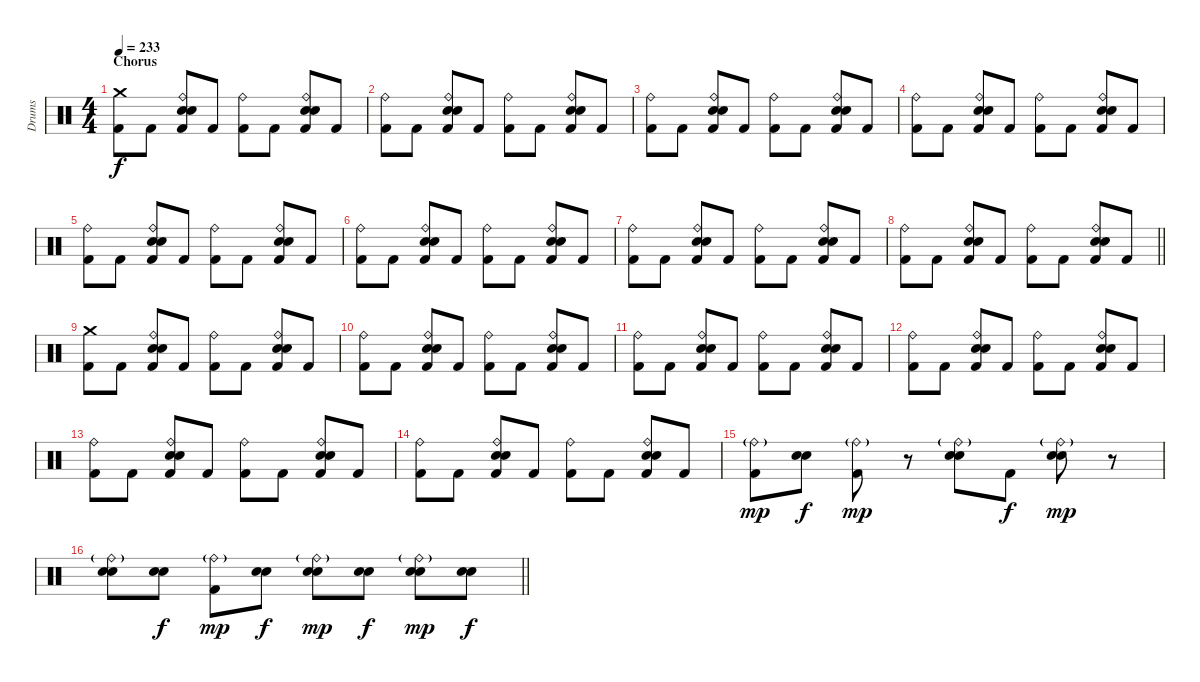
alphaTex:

\track ("Drums" "Drums") {instrument percussion}
\staff {score}
\articulation defaults
\ts (4 4)
\section ("" "Chorus")
\tempo 233
\clef neutral
\ks c
("Crash medium (hit)" "Kick (hit) 2").8{dy f} "Kick (hit) 2".8 ("Ride (bell)" "Snare (hit) 2" "Electric Snare (hit)" "Kick (hit) 2").8 "Kick (hit) 2".8 ("Ride (bell)" "Kick (hit) 2").8 "Kick (hit) 2".8 ("Ride (bell)" "Snare (hit) 2" "Electric Snare (hit)" "Kick (hit) 2").8 "Kick (hit) 2".8 |
("Ride (bell)" "Kick (hit) 2").8 "Kick (hit) 2".8 ("Ride (bell)" "Snare (hit) 2" "Electric Snare (hit)" "Kick (hit) 2").8 "Kick (hit) 2".8 ("Ride (bell)" "Kick (hit) 2").8 "Kick (hit) 2".8 ("Ride (bell)" "Snare (hit) 2" "Electric Snare (hit)" "Kick (hit) 2").8 "Kick (hit) 2".8 |
("Ride (bell)" "Kick (hit) 2").8 "Kick (hit) 2".8 ("Ride (bell)" "Snare (hit) 2" "Electric Snare (hit)" "Kick (hit) 2").8 "Kick (hit) 2".8 ("Ride (bell)" "Kick (hit) 2").8 "Kick (hit) 2".8 ("Ride (bell)" "Snare (hit) 2" "Electric Snare (hit)" "Kick (hit) 2").8 "Kick (hit) 2".8 |
("Ride (bell)" "Kick (hit) 2").8 "Kick (hit) 2".8 ("Ride (bell)" "Snare (hit) 2" "Electric Snare (hit)" "Kick (hit) 2").8 "Kick (hit) 2".8 ("Ride (bell)" "Kick (hit) 2").8 "Kick (hit) 2".8 ("Ride (bell)" "Snare (hit) 2" "Electric Snare (hit)" "Kick (hit) 2").8 "Kick (hit) 2".8 |
("Ride (bell)" "Kick (hit) 2").8 "Kick (hit) 2".8 ("Ride (bell)" "Snare (hit) 2" "Electric Snare (hit)" "Kick (hit) 2").8 "Kick (hit) 2".8 ("Ride (bell)" "Kick (hit) 2").8 "Kick (hit) 2".8 ("Ride (bell)" "Snare (hit) 2" "Electric Snare (hit)" "Kick (hit) 2").8 "Kick (hit) 2".8 |
("Ride (bell)" "Kick (hit) 2").8 "Kick (hit) 2".8 ("Ride (bell)" "Snare (hit) 2" "Electric Snare (hit)" "Kick (hit) 2").8 "Kick (hit) 2".8 ("Ride (bell)" "Kick (hit) 2").8 "Kick (hit) 2".8 ("Ride (bell)" "Snare (hit) 2" "Electric Snare (hit)" "Kick (hit) 2").8 "Kick (hit) 2".8 |
("Ride (bell)" "Kick (hit) 2").8 "Kick (hit) 2".8 ("Ride (bell)" "Snare (hit) 2" "Electric Snare (hit)" "Kick (hit) 2").8 "Kick (hit) 2".8 ("Ride (bell)" "Kick (hit) 2").8 "Kick (hit) 2".8 ("Ride (bell)" "Snare (hit) 2" "Electric Snare (hit)" "Kick (hit) 2").8 "Kick (hit) 2".8 |
\barLineRight lightlight
("Ride (bell)" "Kick (hit) 2").8 "Kick (hit) 2".8 ("Ride (bell)" "Snare (hit) 2" "Electric Snare (hit)" "Kick (hit) 2").8 "Kick (hit) 2".8 ("Ride (bell)" "Kick (hit) 2").8 "Kick (hit) 2".8 ("Ride (bell)" "Snare (hit) 2" "Electric Snare (hit)" "Kick (hit) 2").8 "Kick (hit) 2".8 |
("Crash medium (hit)" "Kick (hit) 2").8 "Kick (hit) 2".8 ("Ride (bell)" "Snare (hit) 2" "Electric Snare (hit)" "Kick (hit) 2").8 "Kick (hit) 2".8 ("Ride (bell)" "Kick (hit) 2").8 "Kick (hit) 2".8 ("Ride (bell)" "Snare (hit) 2" "Electric Snare (hit)" "Kick (hit) 2").8 "Kick (hit) 2".8 |
("Ride (bell)" "Kick (hit) 2").8 "Kick (hit) 2".8 ("Ride (bell)" "Snare (hit) 2" "Electric Snare (hit)" "Kick (hit) 2").8 "Kick (hit) 2".8 ("Ride (bell)" "Kick (hit) 2").8 "Kick (hit) 2".8 ("Ride (bell)" "Snare (hit) 2" "Electric Snare (hit)" "Kick (hit) 2").8 "Kick (hit) 2".8 |
("Ride (bell)" "Kick (hit) 2").8 "Kick (hit) 2".8 ("Ride (bell)" "Snare (hit) 2" "Electric Snare (hit)" "Kick (hit) 2").8 "Kick (hit) 2".8 ("Ride (bell)" "Kick (hit) 2").8 "Kick (hit) 2".8 ("Ride (bell)" "Snare (hit) 2" "Electric Snare (hit)" "Kick (hit) 2").8 "Kick (hit) 2".8 |
("Ride (bell)" "Kick (hit) 2").8 "Kick (hit) 2".8 ("Ride (bell)" "Snare (hit) 2" "Electric Snare (hit)" "Kick (hit) 2").8 "Kick (hit) 2".8 ("Ride (bell)" "Kick (hit) 2").8 "Kick (hit) 2".8 ("Ride (bell)" "Snare (hit) 2" "Electric Snare (hit)" "Kick (hit) 2").8 "Kick (hit) 2".8 |
("Ride (bell)" "Kick (hit) 2").8 "Kick (hit) 2".8 ("Ride (bell)" "Snare (hit) 2" "Electric Snare (hit)" "Kick (hit) 2").8 "Kick (hit) 2".8 ("Ride (bell)" "Kick (hit) 2").8 "Kick (hit) 2".8 ("Ride (bell)" "Snare (hit) 2" "Electric Snare (hit)" "Kick (hit) 2").8 "Kick (hit) 2".8 |
("Ride (bell)" "Kick (hit) 2").8 "Kick (hit) 2".8 ("Ride (bell)" "Snare (hit) 2" "Electric Snare (hit)" "Kick (hit) 2").8 "Kick (hit) 2".8 ("Ride (bell)" "Kick (hit) 2").8 "Kick (hit) 2".8 ("Ride (bell)" "Snare (hit) 2" "Electric Snare (hit)" "Kick (hit) 2").8 "Kick (hit) 2".8 |
("Ride (bell)"{g} "Kick (hit) 2").8{dy mp} ("Snare (hit) 2" "Electric Snare (hit)").8{dy f} ("Ride (bell)"{g} "Kick (hit) 2").8{dy mp} r.8 ("Ride (bell)"{g} "Snare (hit) 2" "Electric Snare (hit)").8 "Kick (hit) 2".8{dy f} ("Ride (bell)"{g} "Snare (hit) 2" "Electric Snare (hit)").8{dy mp} r.8 |
\barLineRight lightlight
("Ride (bell)"{g} "Snare (hit) 2" "Electric Snare (hit)").8 ("Snare (hit) 2" "Electric Snare (hit)").8{dy f} ("Ride (bell)"{g} "Kick (hit) 2").8{dy mp} ("Snare (hit) 2" "Electric Snare (hit)").8{dy f} ("Ride (bell)"{g} "Snare (hit) 2" "Electric Snare (hit)").8{dy mp} ("Snare (hit) 2" "Electric Snare (hit)").8{dy f} ("Ride (bell)"{g} "Snare (hit) 2" "Electric Snare (hit)").8{dy mp} ("Snare (hit) 2" "Electric Snare (hit)").8{dy f}
